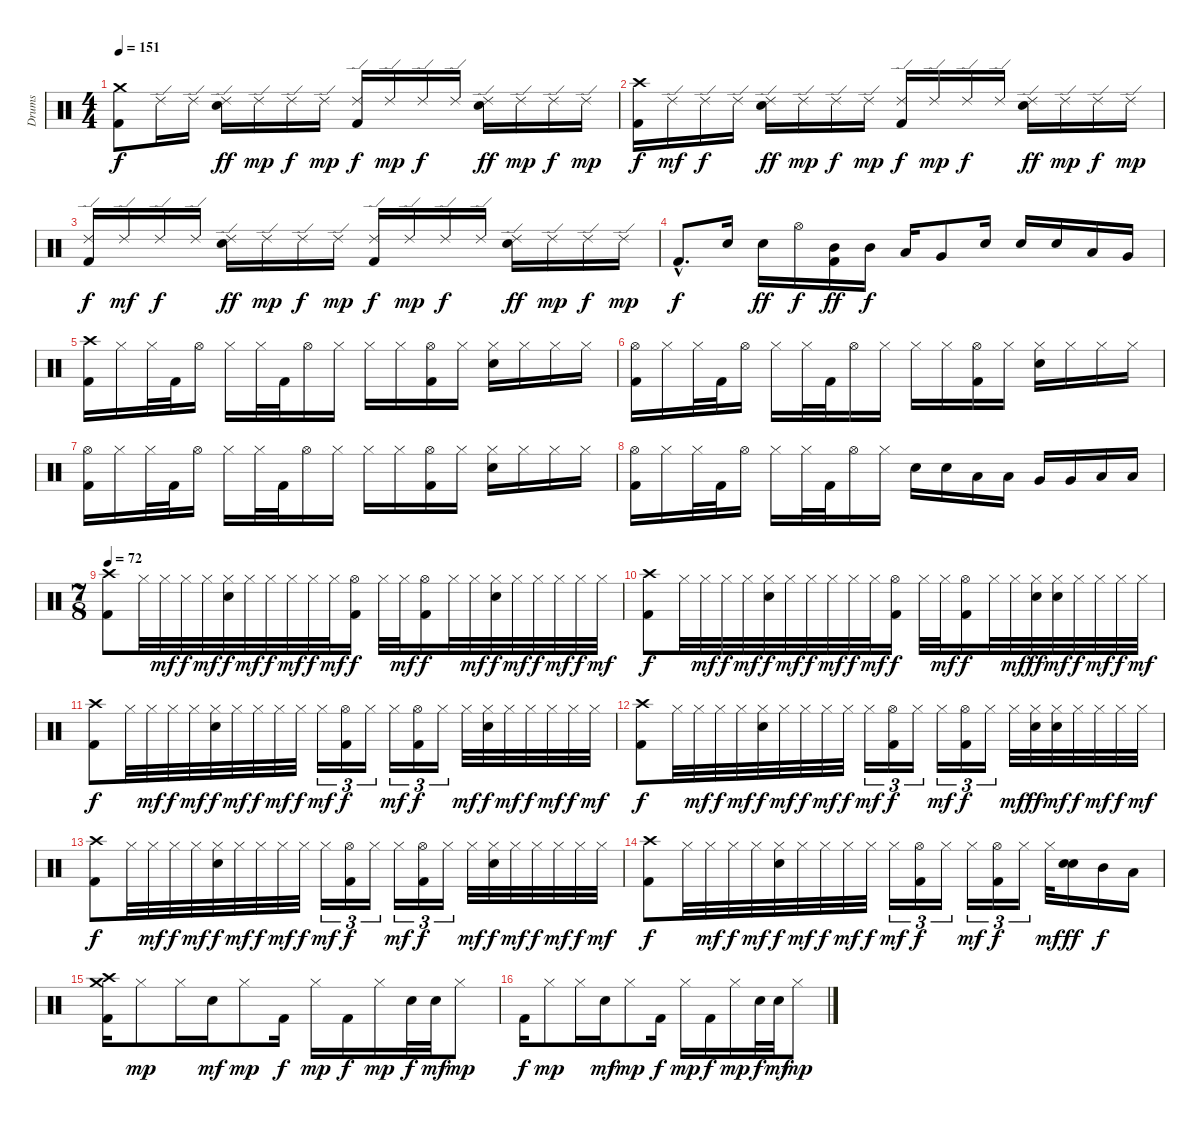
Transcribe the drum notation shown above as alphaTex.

\track ("Drums" "Drums") {instrument percussion}
\staff {score}
\articulation defaults
\ts (4 4)
\tempo 151
\clef neutral
\ks c
("Crash medium (hit)" "Kick (hit) 2").8{dy f} "Ride (edge) 2".16 "Ride (edge) 2".16 ("Ride (edge) 2" "Electric Snare (hit)").16{dy ff} "Ride (edge) 2".16{dy mp} "Ride (edge) 2".16{dy f} "Ride (edge) 2".16{dy mp} ("Ride (edge) 2" "Kick (hit) 2").16{dy f} "Ride (edge) 2".16{dy mp} "Ride (edge) 2".16{dy f} "Ride (edge) 2".16 ("Ride (edge) 2" "Electric Snare (hit)").16{dy ff} "Ride (edge) 2".16{dy mp} "Ride (edge) 2".16{dy f} "Ride (edge) 2".16{dy mp} |
("Crash high (hit)" "Kick (hit) 2").16{dy f} "Ride (edge) 2".16{dy mf} "Ride (edge) 2".16{dy f} "Ride (edge) 2".16 ("Ride (edge) 2" "Electric Snare (hit)").16{dy ff} "Ride (edge) 2".16{dy mp} "Ride (edge) 2".16{dy f} "Ride (edge) 2".16{dy mp} ("Ride (edge) 2" "Kick (hit) 2").16{dy f} "Ride (edge) 2".16{dy mp} "Ride (edge) 2".16{dy f} "Ride (edge) 2".16 ("Ride (edge) 2" "Electric Snare (hit)").16{dy ff} "Ride (edge) 2".16{dy mp} "Ride (edge) 2".16{dy f} "Ride (edge) 2".16{dy mp} |
("Ride (edge) 2" "Kick (hit) 2").16{dy f} "Ride (edge) 2".16{dy mf} "Ride (edge) 2".16{dy f} "Ride (edge) 2".16 ("Ride (edge) 2" "Electric Snare (hit)").16{dy ff} "Ride (edge) 2".16{dy mp} "Ride (edge) 2".16{dy f} "Ride (edge) 2".16{dy mp} ("Ride (edge) 2" "Kick (hit) 2").16{dy f} "Ride (edge) 2".16{dy mp} "Ride (edge) 2".16{dy f} "Ride (edge) 2".16 ("Ride (edge) 2" "Electric Snare (hit)").16{dy ff} "Ride (edge) 2".16{dy mp} "Ride (edge) 2".16{dy f} "Ride (edge) 2".16{dy mp} |
"Kick (hit) 2"{hac}.8{d dy f} "Electric Snare (hit)".16 "Electric Snare (hit)".16{dy ff} "Hi-Hat (open)".16{dy f} ("Mid Tom (hit)" "Kick (hit) 2").16{dy ff} "Mid Tom (hit)".16{dy f} "Low Tom (hit)".16 "Very Low Tom (hit)".8 "Electric Snare (hit)".16 "Electric Snare (hit)".16 "Electric Snare (hit)".16 "Low Tom (hit)".16 "Very Low Tom (hit)".16 |
("Crash high (hit)" "Kick (hit) 2").16 "Hi-Hat (closed)".16 "Hi-Hat (closed)".32 "Kick (hit) 2".32 "Hi-Hat (open)".16 "Hi-Hat (closed)".16 "Hi-Hat (closed)".32 "Kick (hit) 2".32 "Hi-Hat (open)".16 "Hi-Hat (closed)".16 "Hi-Hat (closed)".16 "Hi-Hat (closed)".16 ("Hi-Hat (open)" "Kick (hit) 2").16 "Hi-Hat (closed)".16 ("Electric Snare (hit)" "Hi-Hat (closed)").16 "Hi-Hat (closed)".16 "Hi-Hat (closed)".16 "Hi-Hat (closed)".16 |
("Hi-Hat (open)" "Kick (hit) 2").16 "Hi-Hat (closed)".16 "Hi-Hat (closed)".32 "Kick (hit) 2".32 "Hi-Hat (open)".16 "Hi-Hat (closed)".16 "Hi-Hat (closed)".32 "Kick (hit) 2".32 "Hi-Hat (open)".16 "Hi-Hat (closed)".16 "Hi-Hat (closed)".16 "Hi-Hat (closed)".16 ("Hi-Hat (open)" "Kick (hit) 2").16 "Hi-Hat (closed)".16 ("Electric Snare (hit)" "Hi-Hat (closed)").16 "Hi-Hat (closed)".16 "Hi-Hat (closed)".16 "Hi-Hat (closed)".16 |
("Hi-Hat (open)" "Kick (hit) 2").16 "Hi-Hat (closed)".16 "Hi-Hat (closed)".32 "Kick (hit) 2".32 "Hi-Hat (open)".16 "Hi-Hat (closed)".16 "Hi-Hat (closed)".32 "Kick (hit) 2".32 "Hi-Hat (open)".16 "Hi-Hat (closed)".16 "Hi-Hat (closed)".16 "Hi-Hat (closed)".16 ("Hi-Hat (open)" "Kick (hit) 2").16 "Hi-Hat (closed)".16 ("Electric Snare (hit)" "Hi-Hat (closed)").16 "Hi-Hat (closed)".16 "Hi-Hat (closed)".16 "Hi-Hat (closed)".16 |
("Hi-Hat (open)" "Kick (hit) 2").16 "Hi-Hat (closed)".16 "Hi-Hat (closed)".32 "Kick (hit) 2".32 "Hi-Hat (open)".16 "Hi-Hat (closed)".16 "Hi-Hat (closed)".32 "Kick (hit) 2".32 "Hi-Hat (open)".16 "Hi-Hat (closed)".16 "Electric Snare (hit)".16 "Electric Snare (hit)".16 "Low Tom (hit)".16 "Low Tom (hit)".16 "Very Low Tom (hit)".16 "Very Low Tom (hit)".16 "Low Floor Tom (hit)".16 "Low Floor Tom (hit)".16 |
\ts (7 8)
\tempo 72
("Crash high (hit)" "Kick (hit) 2").8 "Hi-Hat (closed)".32 "Hi-Hat (closed)".32{dy mf} "Hi-Hat (closed)".32{dy f} "Hi-Hat (closed)".32{dy mf} ("Electric Snare (hit)" "Hi-Hat (closed)").32{dy f} "Hi-Hat (closed)".32{dy mf} "Hi-Hat (closed)".32{dy f} "Hi-Hat (closed)".32{dy mf} "Hi-Hat (closed)".32{dy f} "Hi-Hat (closed)".32{dy mf} ("Hi-Hat (open)" "Kick (hit) 2").16{dy f} "Hi-Hat (closed)".32 "Hi-Hat (closed)".32{dy mf} ("Hi-Hat (open)" "Kick (hit) 2").16{dy f} "Hi-Hat (closed)".32 "Hi-Hat (closed)".32{dy mf} ("Electric Snare (hit)" "Hi-Hat (closed)").32{dy f} "Hi-Hat (closed)".32{dy mf} "Hi-Hat (closed)".32{dy f} "Hi-Hat (closed)".32{dy mf} "Hi-Hat (closed)".32{dy f} "Hi-Hat (closed)".32{dy mf} |
("Crash high (hit)" "Kick (hit) 2").8{dy f} "Hi-Hat (closed)".32 "Hi-Hat (closed)".32{dy mf} "Hi-Hat (closed)".32{dy f} "Hi-Hat (closed)".32{dy mf} ("Electric Snare (hit)" "Hi-Hat (closed)").32{dy f} "Hi-Hat (closed)".32{dy mf} "Hi-Hat (closed)".32{dy f} "Hi-Hat (closed)".32{dy mf} "Hi-Hat (closed)".32{dy f} "Hi-Hat (closed)".32{dy mf} ("Hi-Hat (open)" "Kick (hit) 2").16{dy f} "Hi-Hat (closed)".32 "Hi-Hat (closed)".32{dy mf} ("Hi-Hat (open)" "Kick (hit) 2").16{dy f} "Hi-Hat (closed)".32 "Hi-Hat (closed)".32{dy mf} ("Electric Snare (hit)" "Hi-Hat (closed)").32{dy ff} ("Electric Snare (hit)" "Hi-Hat (closed)").32{dy mf} "Hi-Hat (closed)".32{dy f} "Hi-Hat (closed)".32{dy mf} "Hi-Hat (closed)".32{dy f} "Hi-Hat (closed)".32{dy mf} |
("Crash high (hit)" "Kick (hit) 2").8{dy f} "Hi-Hat (closed)".32 "Hi-Hat (closed)".32{dy mf} "Hi-Hat (closed)".32{dy f} "Hi-Hat (closed)".32{dy mf} ("Electric Snare (hit)" "Hi-Hat (closed)").32{dy f} "Hi-Hat (closed)".32{dy mf} "Hi-Hat (closed)".32{dy f} "Hi-Hat (closed)".32{dy mf} "Hi-Hat (closed)".32{dy f} "Hi-Hat (closed)".16{tu (3 2) dy mf} ("Hi-Hat (open)" "Kick (hit) 2").16{tu (3 2) dy f} "Hi-Hat (closed)".16{tu (3 2)} "Hi-Hat (closed)".16{tu (3 2) dy mf} ("Hi-Hat (open)" "Kick (hit) 2").16{tu (3 2) dy f} "Hi-Hat (closed)".16{tu (3 2)} "Hi-Hat (closed)".32{dy mf} ("Electric Snare (hit)" "Hi-Hat (closed)").32{dy f} "Hi-Hat (closed)".32{dy mf} "Hi-Hat (closed)".32{dy f} "Hi-Hat (closed)".32{dy mf} "Hi-Hat (closed)".32{dy f} "Hi-Hat (closed)".32{dy mf} |
("Crash high (hit)" "Kick (hit) 2").8{dy f} "Hi-Hat (closed)".32 "Hi-Hat (closed)".32{dy mf} "Hi-Hat (closed)".32{dy f} "Hi-Hat (closed)".32{dy mf} ("Electric Snare (hit)" "Hi-Hat (closed)").32{dy f} "Hi-Hat (closed)".32{dy mf} "Hi-Hat (closed)".32{dy f} "Hi-Hat (closed)".32{dy mf} "Hi-Hat (closed)".32{dy f} "Hi-Hat (closed)".16{tu (3 2) dy mf} ("Hi-Hat (open)" "Kick (hit) 2").16{tu (3 2) dy f} "Hi-Hat (closed)".16{tu (3 2)} "Hi-Hat (closed)".16{tu (3 2) dy mf} ("Hi-Hat (open)" "Kick (hit) 2").16{tu (3 2) dy f} "Hi-Hat (closed)".16{tu (3 2)} "Hi-Hat (closed)".32{dy mf} ("Electric Snare (hit)" "Hi-Hat (closed)").32{dy ff} ("Electric Snare (hit)" "Hi-Hat (closed)").32{dy mf} "Hi-Hat (closed)".32{dy f} "Hi-Hat (closed)".32{dy mf} "Hi-Hat (closed)".32{dy f} "Hi-Hat (closed)".32{dy mf} |
("Crash high (hit)" "Kick (hit) 2").8{dy f} "Hi-Hat (closed)".32 "Hi-Hat (closed)".32{dy mf} "Hi-Hat (closed)".32{dy f} "Hi-Hat (closed)".32{dy mf} ("Electric Snare (hit)" "Hi-Hat (closed)").32{dy f} "Hi-Hat (closed)".32{dy mf} "Hi-Hat (closed)".32{dy f} "Hi-Hat (closed)".32{dy mf} "Hi-Hat (closed)".32{dy f} "Hi-Hat (closed)".16{tu (3 2) dy mf} ("Hi-Hat (open)" "Kick (hit) 2").16{tu (3 2) dy f} "Hi-Hat (closed)".16{tu (3 2)} "Hi-Hat (closed)".16{tu (3 2) dy mf} ("Hi-Hat (open)" "Kick (hit) 2").16{tu (3 2) dy f} "Hi-Hat (closed)".16{tu (3 2)} "Hi-Hat (closed)".32{dy mf} ("Electric Snare (hit)" "Hi-Hat (closed)").32{dy f} "Hi-Hat (closed)".32{dy mf} "Hi-Hat (closed)".32{dy f} "Hi-Hat (closed)".32{dy mf} "Hi-Hat (closed)".32{dy f} "Hi-Hat (closed)".32{dy mf} |
("Crash high (hit)" "Kick (hit) 2").8{dy f} "Hi-Hat (closed)".32 "Hi-Hat (closed)".32{dy mf} "Hi-Hat (closed)".32{dy f} "Hi-Hat (closed)".32{dy mf} ("Electric Snare (hit)" "Hi-Hat (closed)").32{dy f} "Hi-Hat (closed)".32{dy mf} "Hi-Hat (closed)".32{dy f} "Hi-Hat (closed)".32{dy mf} "Hi-Hat (closed)".32{dy f} "Hi-Hat (closed)".16{tu (3 2) dy mf} ("Hi-Hat (open)" "Kick (hit) 2").16{tu (3 2) dy f} "Hi-Hat (closed)".16{tu (3 2)} "Hi-Hat (closed)".16{tu (3 2) dy mf} ("Hi-Hat (open)" "Kick (hit) 2").16{tu (3 2) dy f} "Hi-Hat (closed)".16{tu (3 2)} "Hi-Hat (closed)".32{dy mf} ("Electric Snare (hit)" "Electric Snare (hit)").16{dy ff} "Mid Tom (hit)".16{dy f} "Low Tom (hit)".16 |
("Crash high (hit)" "Crash medium (hit)" "Kick (hit) 2").16 "Hi-Hat (closed)".8{dy mp} "Hi-Hat (closed)".16 "Electric Snare (hit)".16{dy mf} "Hi-Hat (closed)".8{dy mp} "Kick (hit) 2".16{dy f} "Hi-Hat (closed)".16{dy mp} "Kick (hit) 2".16{dy f} "Hi-Hat (closed)".16{dy mp} "Electric Snare (hit)".32{dy f} "Electric Snare (hit)".32{dy mf} "Hi-Hat (closed)".8{dy mp} |
"Kick (hit) 2".16{dy f} "Hi-Hat (closed)".8{dy mp} "Hi-Hat (closed)".16 "Electric Snare (hit)".16{dy mf} "Hi-Hat (closed)".8{dy mp} "Kick (hit) 2".16{dy f} "Hi-Hat (closed)".16{dy mp} "Kick (hit) 2".16{dy f} "Hi-Hat (closed)".16{dy mp} "Electric Snare (hit)".32{dy f} "Electric Snare (hit)".32{dy mf} "Hi-Hat (closed)".8{dy mp}
